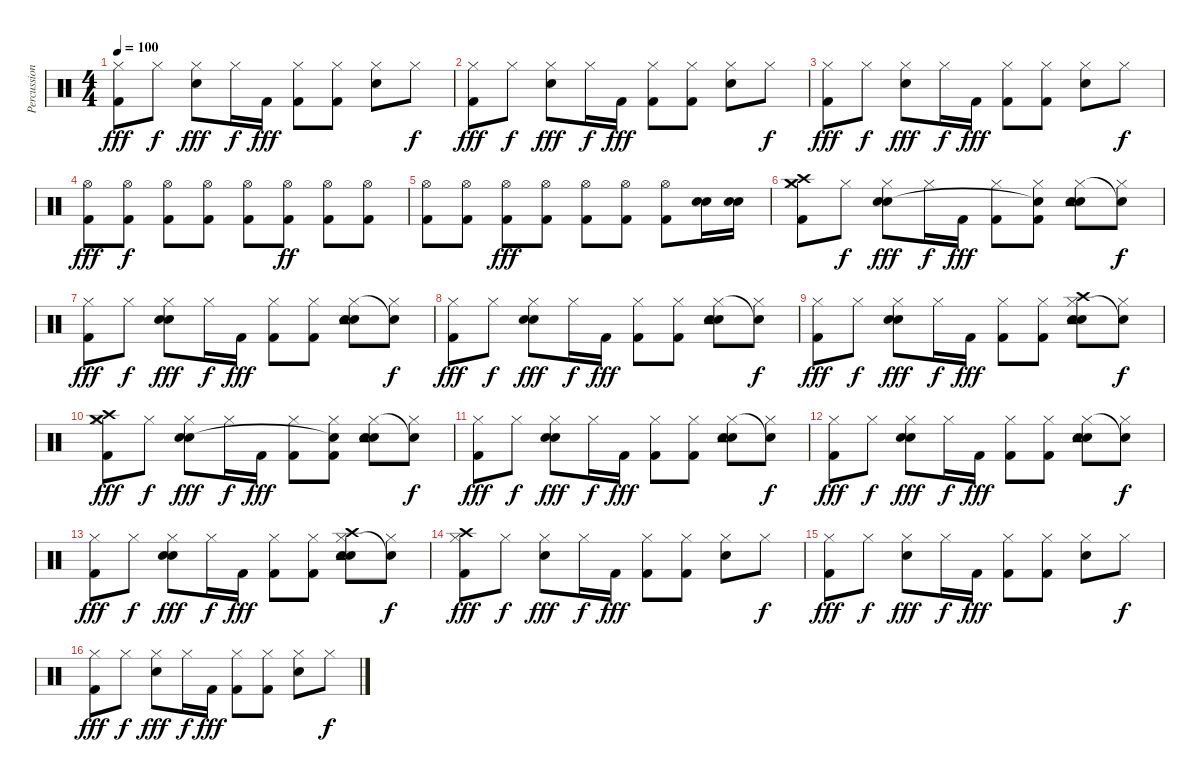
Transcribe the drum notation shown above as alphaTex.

\track ("Percussion" "Percussion") {instrument percussion}
\staff {score}
\articulation defaults
\ts (4 4)
\tempo 100
\clef neutral
\ks c
("Kick (hit) 2" "Hi-Hat (closed)").8{dy fff} "Hi-Hat (closed)".8{dy f} ("Electric Snare (hit)" "Hi-Hat (closed)").8{dy fff} "Hi-Hat (closed)".16{dy f} "Kick (hit) 2".16{dy fff} ("Kick (hit) 2" "Hi-Hat (closed)").8 ("Kick (hit) 2" "Hi-Hat (closed)").8 ("Electric Snare (hit)" "Hi-Hat (closed)").8 "Hi-Hat (closed)".8{dy f} |
("Kick (hit) 2" "Hi-Hat (closed)").8{dy fff} "Hi-Hat (closed)".8{dy f} ("Electric Snare (hit)" "Hi-Hat (closed)").8{dy fff} "Hi-Hat (closed)".16{dy f} "Kick (hit) 2".16{dy fff} ("Kick (hit) 2" "Hi-Hat (closed)").8 ("Kick (hit) 2" "Hi-Hat (closed)").8 ("Electric Snare (hit)" "Hi-Hat (closed)").8 "Hi-Hat (closed)".8{dy f} |
("Kick (hit) 2" "Hi-Hat (closed)").8{dy fff} "Hi-Hat (closed)".8{dy f} ("Electric Snare (hit)" "Hi-Hat (closed)").8{dy fff} "Hi-Hat (closed)".16{dy f} "Kick (hit) 2".16{dy fff} ("Kick (hit) 2" "Hi-Hat (closed)").8 ("Kick (hit) 2" "Hi-Hat (closed)").8 ("Electric Snare (hit)" "Hi-Hat (closed)").8 "Hi-Hat (closed)".8{dy f} |
("Kick (hit) 2" "Hi-Hat (open)").8{dy fff} ("Kick (hit) 2" "Hi-Hat (open)").8{dy f} ("Kick (hit) 2" "Hi-Hat (open)").8 ("Kick (hit) 2" "Hi-Hat (open)").8 ("Kick (hit) 2" "Hi-Hat (open)").8 ("Kick (hit) 2" "Hi-Hat (open)").8{dy ff} ("Kick (hit) 2" "Hi-Hat (open)").8 ("Kick (hit) 2" "Hi-Hat (open)").8 |
("Kick (hit) 2" "Hi-Hat (open)").8 ("Kick (hit) 2" "Hi-Hat (open)").8 ("Kick (hit) 2" "Hi-Hat (open)").8{dy fff} ("Kick (hit) 2" "Hi-Hat (open)").8 ("Kick (hit) 2" "Hi-Hat (open)").8 ("Kick (hit) 2" "Hi-Hat (open)").8 ("Kick (hit) 2" "Hi-Hat (open)").8 ("Electric Snare (hit)" "Electric Snare (hit)").16 ("Electric Snare (hit)" "Electric Snare (hit)").16 |
("Kick (hit) 2" "Hi-Hat (closed)" "Crash high (hit)" "Crash medium (hit)").8 "Hi-Hat (closed)".8{dy f} ("Electric Snare (hit)" "Hi-Hat (closed)" "Hand Clap (hit)").8{dy fff} "Hi-Hat (closed)".16{dy f} "Kick (hit) 2".16{dy fff} ("Kick (hit) 2" "Hi-Hat (closed)").8 ("Kick (hit) 2" "Hi-Hat (closed)" "Snare (hit)"{t}).8 ("Electric Snare (hit)" "Hi-Hat (closed)" "Hand Clap (hit)" "Tambourine (hit)").8 ("Hi-Hat (closed)" "Snare (hit)"{t}).8{dy f} |
("Kick (hit) 2" "Hi-Hat (closed)").8{dy fff} "Hi-Hat (closed)".8{dy f} ("Electric Snare (hit)" "Hi-Hat (closed)" "Hand Clap (hit)").8{dy fff} "Hi-Hat (closed)".16{dy f} "Kick (hit) 2".16{dy fff} ("Kick (hit) 2" "Hi-Hat (closed)").8 ("Kick (hit) 2" "Hi-Hat (closed)").8 ("Electric Snare (hit)" "Hi-Hat (closed)" "Hand Clap (hit)" "Tambourine (hit)").8 ("Hi-Hat (closed)" "Snare (hit)"{t}).8{dy f} |
("Kick (hit) 2" "Hi-Hat (closed)").8{dy fff} "Hi-Hat (closed)".8{dy f} ("Electric Snare (hit)" "Hi-Hat (closed)" "Hand Clap (hit)").8{dy fff} "Hi-Hat (closed)".16{dy f} "Kick (hit) 2".16{dy fff} ("Kick (hit) 2" "Hi-Hat (closed)").8 ("Kick (hit) 2" "Hi-Hat (closed)").8 ("Electric Snare (hit)" "Hi-Hat (closed)" "Hand Clap (hit)" "Tambourine (hit)").8 ("Hi-Hat (closed)" "Snare (hit)"{t}).8{dy f} |
("Kick (hit) 2" "Hi-Hat (closed)").8{dy fff} "Hi-Hat (closed)".8{dy f} ("Electric Snare (hit)" "Hi-Hat (closed)" "Hand Clap (hit)").8{dy fff} "Hi-Hat (closed)".16{dy f} "Kick (hit) 2".16{dy fff} ("Kick (hit) 2" "Hi-Hat (closed)").8 ("Kick (hit) 2" "Hi-Hat (closed)").8 ("Electric Snare (hit)" "Hi-Hat (closed)" "Hand Clap (hit)" "Tambourine (hit)" "Crash high (hit)").8 ("Hi-Hat (closed)" "Snare (hit)"{t}).8{dy f} |
("Kick (hit) 2" "Hi-Hat (closed)" "Crash high (hit)" "Crash medium (hit)").8{dy fff} "Hi-Hat (closed)".8{dy f} ("Electric Snare (hit)" "Hi-Hat (closed)" "Hand Clap (hit)").8{dy fff} "Hi-Hat (closed)".16{dy f} "Kick (hit) 2".16{dy fff} ("Kick (hit) 2" "Hi-Hat (closed)").8 ("Kick (hit) 2" "Hi-Hat (closed)" "Snare (hit)"{t}).8 ("Electric Snare (hit)" "Hi-Hat (closed)" "Hand Clap (hit)" "Tambourine (hit)").8 ("Hi-Hat (closed)" "Snare (hit)"{t}).8{dy f} |
("Kick (hit) 2" "Hi-Hat (closed)").8{dy fff} "Hi-Hat (closed)".8{dy f} ("Electric Snare (hit)" "Hi-Hat (closed)" "Hand Clap (hit)").8{dy fff} "Hi-Hat (closed)".16{dy f} "Kick (hit) 2".16{dy fff} ("Kick (hit) 2" "Hi-Hat (closed)").8 ("Kick (hit) 2" "Hi-Hat (closed)").8 ("Electric Snare (hit)" "Hi-Hat (closed)" "Hand Clap (hit)" "Tambourine (hit)").8 ("Hi-Hat (closed)" "Snare (hit)"{t}).8{dy f} |
("Kick (hit) 2" "Hi-Hat (closed)").8{dy fff} "Hi-Hat (closed)".8{dy f} ("Electric Snare (hit)" "Hi-Hat (closed)" "Hand Clap (hit)").8{dy fff} "Hi-Hat (closed)".16{dy f} "Kick (hit) 2".16{dy fff} ("Kick (hit) 2" "Hi-Hat (closed)").8 ("Kick (hit) 2" "Hi-Hat (closed)").8 ("Electric Snare (hit)" "Hi-Hat (closed)" "Hand Clap (hit)" "Tambourine (hit)").8 ("Hi-Hat (closed)" "Snare (hit)"{t}).8{dy f} |
("Kick (hit) 2" "Hi-Hat (closed)").8{dy fff} "Hi-Hat (closed)".8{dy f} ("Electric Snare (hit)" "Hi-Hat (closed)" "Hand Clap (hit)").8{dy fff} "Hi-Hat (closed)".16{dy f} "Kick (hit) 2".16{dy fff} ("Kick (hit) 2" "Hi-Hat (closed)").8 ("Kick (hit) 2" "Hi-Hat (closed)").8 ("Electric Snare (hit)" "Hi-Hat (closed)" "Hand Clap (hit)" "Tambourine (hit)" "Crash high (hit)").8 ("Hi-Hat (closed)" "Snare (hit)"{t}).8{dy f} |
("Kick (hit) 2" "Hi-Hat (closed)" "Crash high (hit)").8{dy fff} "Hi-Hat (closed)".8{dy f} ("Electric Snare (hit)" "Hi-Hat (closed)").8{dy fff} "Hi-Hat (closed)".16{dy f} "Kick (hit) 2".16{dy fff} ("Kick (hit) 2" "Hi-Hat (closed)").8 ("Kick (hit) 2" "Hi-Hat (closed)").8 ("Electric Snare (hit)" "Hi-Hat (closed)").8 "Hi-Hat (closed)".8{dy f} |
("Kick (hit) 2" "Hi-Hat (closed)").8{dy fff} "Hi-Hat (closed)".8{dy f} ("Electric Snare (hit)" "Hi-Hat (closed)").8{dy fff} "Hi-Hat (closed)".16{dy f} "Kick (hit) 2".16{dy fff} ("Kick (hit) 2" "Hi-Hat (closed)").8 ("Kick (hit) 2" "Hi-Hat (closed)").8 ("Electric Snare (hit)" "Hi-Hat (closed)").8 "Hi-Hat (closed)".8{dy f} |
("Kick (hit) 2" "Hi-Hat (closed)").8{dy fff} "Hi-Hat (closed)".8{dy f} ("Electric Snare (hit)" "Hi-Hat (closed)").8{dy fff} "Hi-Hat (closed)".16{dy f} "Kick (hit) 2".16{dy fff} ("Kick (hit) 2" "Hi-Hat (closed)").8 ("Kick (hit) 2" "Hi-Hat (closed)").8 ("Electric Snare (hit)" "Hi-Hat (closed)").8 "Hi-Hat (closed)".8{dy f}
